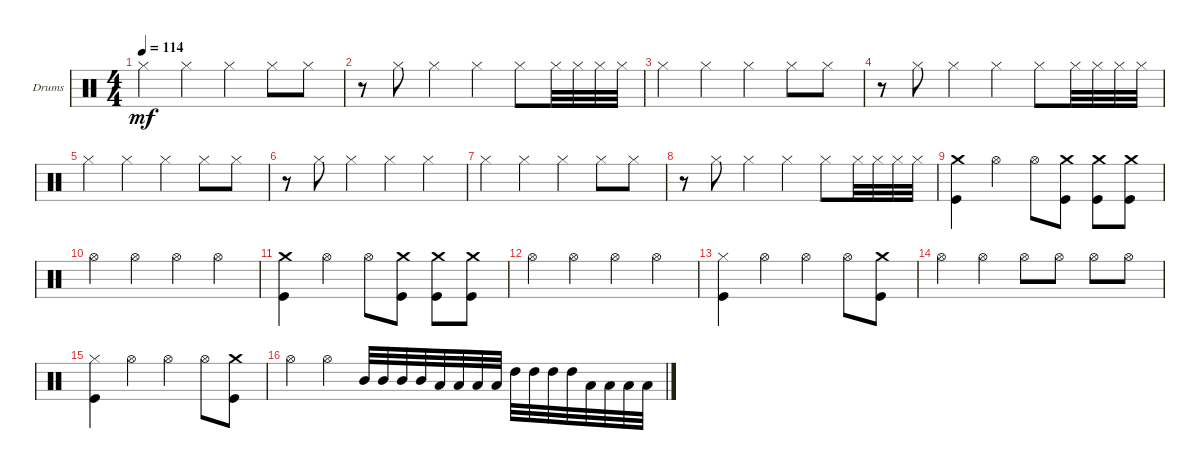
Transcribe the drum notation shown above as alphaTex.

\defaultSystemsLayout 4
\bracketExtendMode groupsimilarinstruments
\firstSystemTrackNameOrientation horizontal
\otherSystemsTrackNameOrientation horizontal
\track ("Drums Inferno" "Drums") {instrument percussion}
\staff {score}
\articulation defaults
\ts (4 4)
\tempo 114
\clef neutral
\scale
0.472222
\ks c "Hi-Hat (closed)".4{dy mf} "Hi-Hat (closed)".4 "Hi-Hat (closed)".4 "Hi-Hat (closed)".8 "Hi-Hat (closed)".8
|
\scale
0.263889 r.8 "Hi-Hat (closed)".8 "Hi-Hat (closed)".4 "Hi-Hat (closed)".4 "Hi-Hat (closed)".8 "Hi-Hat (closed)".32 "Hi-Hat (closed)".32 "Hi-Hat (closed)".32 "Hi-Hat (closed)".32 |
\scale
0.263889 "Hi-Hat (closed)".4 "Hi-Hat (closed)".4 "Hi-Hat (closed)".4 "Hi-Hat (closed)".8 "Hi-Hat (closed)".8 |
\scale
0.333333 r.8 "Hi-Hat (closed)".8 "Hi-Hat (closed)".4 "Hi-Hat (closed)".4 "Hi-Hat (closed)".8 "Hi-Hat (closed)".32 "Hi-Hat (closed)".32 "Hi-Hat (closed)".32 "Hi-Hat (closed)".32 |
\scale
0.333333 "Hi-Hat (closed)".4 "Hi-Hat (closed)".4 "Hi-Hat (closed)".4 "Hi-Hat (closed)".8 "Hi-Hat (closed)".8 |
\scale
0.333333 r.8 "Hi-Hat (closed)".8 "Hi-Hat (closed)".4 "Hi-Hat (closed)".4 "Hi-Hat (closed)".4 |
\scale
0.333333 "Hi-Hat (closed)".4 "Hi-Hat (closed)".4 "Hi-Hat (closed)".4 "Hi-Hat (closed)".8 "Hi-Hat (closed)".8 |
\scale
0.333333 r.8 "Hi-Hat (closed)".8 "Hi-Hat (closed)".4 "Hi-Hat (closed)".4 "Hi-Hat (closed)".8 "Hi-Hat (closed)".32 "Hi-Hat (closed)".32 "Hi-Hat (closed)".32 "Hi-Hat (closed)".32 |
\scale
0.333333 ("Crash medium (hit)" "Kick (hit)").4 "Hi-Hat (open)".4 "Hi-Hat (open)".8 ("Crash medium (hit)" "Kick (hit)").8 ("Crash medium (hit)" "Kick (hit)").8 ("Crash medium (hit)" "Kick (hit)").8 |
\scale
0.333333 "Hi-Hat (open)".4 "Hi-Hat (open)".4 "Hi-Hat (open)".4 "Hi-Hat (open)".4 |
\scale
0.333333 ("Crash medium (hit)" "Kick (hit)").4 "Hi-Hat (open)".4 "Hi-Hat (open)".8 ("Crash medium (hit)" "Kick (hit)").8 ("Crash medium (hit)" "Kick (hit)").8 ("Crash medium (hit)" "Kick (hit)").8 |
\scale
0.333333 "Hi-Hat (open)".4 "Hi-Hat (open)".4 "Hi-Hat (open)".4 "Hi-Hat (open)".4 |
\scale
0.333333 ("Kick (hit)" "Hi-Hat (closed)").4 "Hi-Hat (open)".4 "Hi-Hat (open)".4 "Hi-Hat (open)".8 ("Kick (hit)" "Crash medium (hit)").8 |
\scale
0.333333 "Hi-Hat (open)".4 "Hi-Hat (open)".4 "Hi-Hat (open)".8 "Hi-Hat (open)".8 "Hi-Hat (open)".8 "Hi-Hat (open)".8 |
\scale
0.333333 ("Kick (hit)" "Hi-Hat (closed)").4 "Hi-Hat (open)".4 "Hi-Hat (open)".4 "Hi-Hat (open)".8 ("Kick (hit)" "Crash medium (hit)").8 |
\scale
0.333333 "Hi-Hat (open)".4 "Hi-Hat (open)".4 "Mid Tom (hit)".32 "Mid Tom (hit)".32 "Mid Tom (hit)".32 "Mid Tom (hit)".32 "Low Tom (hit)".32 "Low Tom (hit)".32 "Low Tom (hit)".32 "Low Tom (hit)".32 "High Tom (hit)".32 "High Tom (hit)".32 "High Tom (hit)".32 "High Tom (hit)".32 "Low Tom (hit)".32 "Low Tom (hit)".32 "Low Tom (hit)".32 "Low Tom (hit)".32
